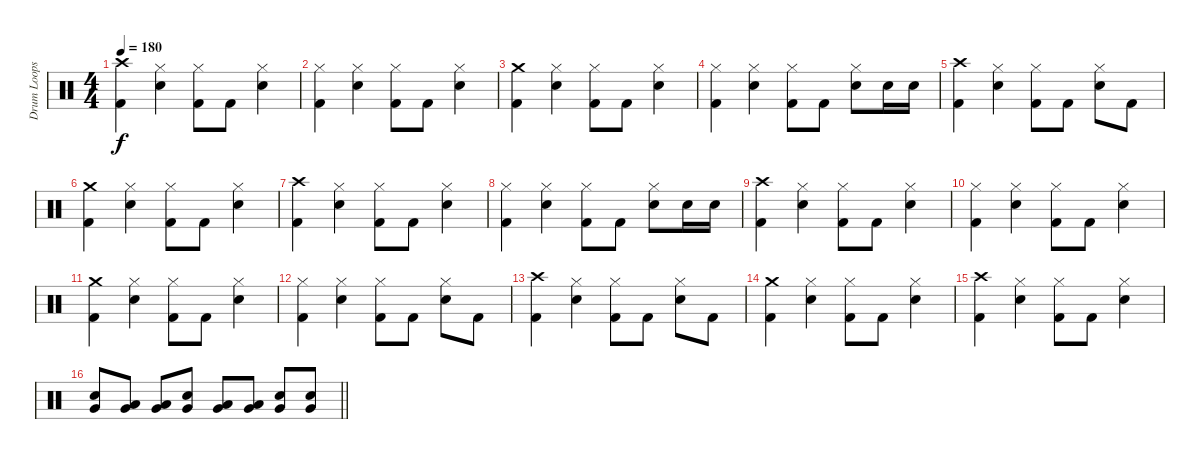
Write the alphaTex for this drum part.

\track ("Drum Loops (Дурачок)" "Drum Loops") {instrument percussion}
\staff {score}
\articulation defaults
\ts (4 4)
\tempo 180
\clef neutral
\ks c
("Kick (hit) 2" "Crash high (hit)").4{dy f} ("Snare (hit) 2" "Hi-Hat (closed)").4 ("Kick (hit) 2" "Hi-Hat (closed)").8 "Kick (hit) 2".8 ("Snare (hit) 2" "Hi-Hat (closed)").4 |
("Kick (hit) 2" "Hi-Hat (closed)").4 ("Snare (hit) 2" "Hi-Hat (closed)").4 ("Kick (hit) 2" "Hi-Hat (closed)").8 "Kick (hit) 2".8 ("Snare (hit) 2" "Hi-Hat (closed)").4 |
("Kick (hit) 2" "Crash medium (hit)").4 ("Snare (hit) 2" "Hi-Hat (closed)").4 ("Kick (hit) 2" "Hi-Hat (closed)").8 "Kick (hit) 2".8 ("Snare (hit) 2" "Hi-Hat (closed)").4 |
("Kick (hit) 2" "Hi-Hat (closed)").4 ("Snare (hit) 2" "Hi-Hat (closed)").4 ("Kick (hit) 2" "Hi-Hat (closed)").8 "Kick (hit) 2".8 ("Snare (hit) 2" "Hi-Hat (closed)").8 "Snare (hit) 2".16 "Snare (hit) 2".16 |
("Kick (hit) 2" "Crash high (hit)").4 ("Snare (hit) 2" "Hi-Hat (closed)").4 ("Kick (hit) 2" "Hi-Hat (closed)").8 "Kick (hit) 2".8 ("Snare (hit) 2" "Hi-Hat (closed)").8 "Kick (hit) 2".8 |
("Kick (hit) 2" "Crash medium (hit)").4 ("Snare (hit) 2" "Hi-Hat (closed)").4 ("Kick (hit) 2" "Hi-Hat (closed)").8 "Kick (hit) 2".8 ("Snare (hit) 2" "Hi-Hat (closed)").4 |
("Kick (hit) 2" "Crash high (hit)").4 ("Snare (hit) 2" "Hi-Hat (closed)").4 ("Kick (hit) 2" "Hi-Hat (closed)").8 "Kick (hit) 2".8 ("Snare (hit) 2" "Hi-Hat (closed)").4 |
("Kick (hit) 2" "Hi-Hat (closed)").4 ("Snare (hit) 2" "Hi-Hat (closed)").4 ("Kick (hit) 2" "Hi-Hat (closed)").8 "Kick (hit) 2".8 ("Snare (hit) 2" "Hi-Hat (closed)").8 "Snare (hit) 2".16 "Snare (hit) 2".16 |
("Kick (hit) 2" "Crash high (hit)").4 ("Snare (hit) 2" "Hi-Hat (closed)").4 ("Kick (hit) 2" "Hi-Hat (closed)").8 "Kick (hit) 2".8 ("Snare (hit) 2" "Hi-Hat (closed)").4 |
("Kick (hit) 2" "Hi-Hat (closed)").4 ("Snare (hit) 2" "Hi-Hat (closed)").4 ("Kick (hit) 2" "Hi-Hat (closed)").8 "Kick (hit) 2".8 ("Snare (hit) 2" "Hi-Hat (closed)").4 |
("Kick (hit) 2" "Crash medium (hit)").4 ("Snare (hit) 2" "Hi-Hat (closed)").4 ("Kick (hit) 2" "Hi-Hat (closed)").8 "Kick (hit) 2".8 ("Snare (hit) 2" "Hi-Hat (closed)").4 |
("Kick (hit) 2" "Hi-Hat (closed)").4 ("Snare (hit) 2" "Hi-Hat (closed)").4 ("Kick (hit) 2" "Hi-Hat (closed)").8 "Kick (hit) 2".8 ("Snare (hit) 2" "Hi-Hat (closed)").8 "Kick (hit) 2".8 |
("Kick (hit) 2" "Crash high (hit)").4 ("Snare (hit) 2" "Hi-Hat (closed)").4 ("Kick (hit) 2" "Hi-Hat (closed)").8 "Kick (hit) 2".8 ("Snare (hit) 2" "Hi-Hat (closed)").8 "Kick (hit) 2".8 |
("Kick (hit) 2" "Crash medium (hit)").4 ("Snare (hit) 2" "Hi-Hat (closed)").4 ("Kick (hit) 2" "Hi-Hat (closed)").8 "Kick (hit) 2".8 ("Snare (hit) 2" "Hi-Hat (closed)").4 |
("Kick (hit) 2" "Crash high (hit)").4 ("Snare (hit) 2" "Hi-Hat (closed)").4 ("Kick (hit) 2" "Hi-Hat (closed)").8 "Kick (hit) 2".8 ("Snare (hit) 2" "Hi-Hat (closed)").4 |
\barLineRight lightlight
("Snare (hit) 2" "Very Low Tom (hit)").8 ("Low Tom (hit)" "Very Low Tom (hit)").8 ("Low Tom (hit)" "Very Low Tom (hit)").8 ("Snare (hit) 2" "Very Low Tom (hit)").8 ("Low Tom (hit)" "Very Low Tom (hit)").8 ("Low Tom (hit)" "Very Low Tom (hit)").8 ("Snare (hit) 2" "Very Low Tom (hit)").8 ("Snare (hit) 2" "Very Low Tom (hit)").8
